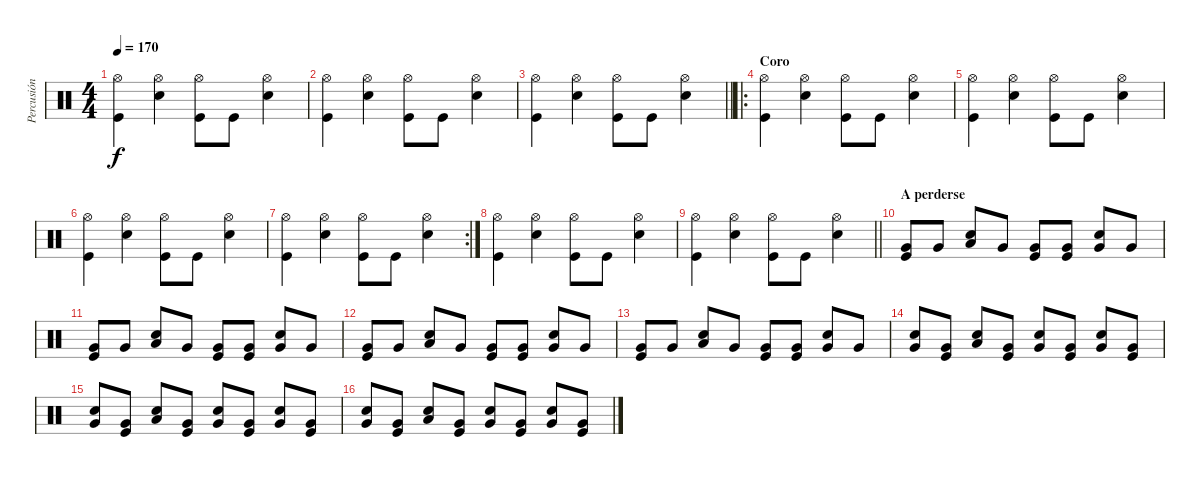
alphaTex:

\track ("Percusión" "Percusión") {instrument percussion}
\staff {score}
\articulation defaults
\ts (4 4)
\tempo 170
\clef neutral
\ks c
("Hi-Hat (open)" "Kick (hit)").4{dy f} ("Hi-Hat (open)" "Electric Snare (hit)").4 ("Hi-Hat (open)" "Kick (hit)").8 "Kick (hit)".8 ("Hi-Hat (open)" "Electric Snare (hit)").4 |
("Hi-Hat (open)" "Kick (hit)").4 ("Hi-Hat (open)" "Electric Snare (hit)").4 ("Hi-Hat (open)" "Kick (hit)").8 "Kick (hit)".8 ("Hi-Hat (open)" "Electric Snare (hit)").4 |
\barLineRight lightlight
("Hi-Hat (open)" "Kick (hit)").4 ("Hi-Hat (open)" "Electric Snare (hit)").4 ("Hi-Hat (open)" "Kick (hit)").8 "Kick (hit)".8 ("Hi-Hat (open)" "Electric Snare (hit)").4 |
\ro
\section ("" "Coro")
("Hi-Hat (open)" "Kick (hit)").4 ("Hi-Hat (open)" "Electric Snare (hit)").4 ("Hi-Hat (open)" "Kick (hit)").8 "Kick (hit)".8 ("Hi-Hat (open)" "Electric Snare (hit)").4 |
("Hi-Hat (open)" "Kick (hit)").4 ("Hi-Hat (open)" "Electric Snare (hit)").4 ("Hi-Hat (open)" "Kick (hit)").8 "Kick (hit)".8 ("Hi-Hat (open)" "Electric Snare (hit)").4 |
("Hi-Hat (open)" "Kick (hit)").4 ("Hi-Hat (open)" "Electric Snare (hit)").4 ("Hi-Hat (open)" "Kick (hit)").8 "Kick (hit)".8 ("Hi-Hat (open)" "Electric Snare (hit)").4 |
\rc 2
("Hi-Hat (open)" "Kick (hit)").4 ("Hi-Hat (open)" "Electric Snare (hit)").4 ("Hi-Hat (open)" "Kick (hit)").8 "Kick (hit)".8 ("Hi-Hat (open)" "Electric Snare (hit)").4 |
("Hi-Hat (open)" "Kick (hit)").4 ("Hi-Hat (open)" "Electric Snare (hit)").4 ("Hi-Hat (open)" "Kick (hit)").8 "Kick (hit)".8 ("Hi-Hat (open)" "Electric Snare (hit)").4 |
\barLineRight lightlight
("Hi-Hat (open)" "Kick (hit)").4 ("Hi-Hat (open)" "Electric Snare (hit)").4 ("Hi-Hat (open)" "Kick (hit)").8 "Kick (hit)".8 ("Hi-Hat (open)" "Electric Snare (hit)").4 |
\section ("" "A perderse")
("Very Low Tom (hit)" "Kick (hit)").8 "Very Low Tom (hit)".8 ("Low Tom (hit)" "Electric Snare (hit)").8 "Very Low Tom (hit)".8 ("Very Low Tom (hit)" "Kick (hit)").8 ("Very Low Tom (hit)" "Kick (hit)").8 ("Very Low Tom (hit)" "Electric Snare (hit)").8 "Very Low Tom (hit)".8 |
("Very Low Tom (hit)" "Kick (hit)").8 "Very Low Tom (hit)".8 ("Low Tom (hit)" "Electric Snare (hit)").8 "Very Low Tom (hit)".8 ("Very Low Tom (hit)" "Kick (hit)").8 ("Very Low Tom (hit)" "Kick (hit)").8 ("Very Low Tom (hit)" "Electric Snare (hit)").8 "Very Low Tom (hit)".8 |
("Very Low Tom (hit)" "Kick (hit)").8 "Very Low Tom (hit)".8 ("Low Tom (hit)" "Electric Snare (hit)").8 "Very Low Tom (hit)".8 ("Very Low Tom (hit)" "Kick (hit)").8 ("Very Low Tom (hit)" "Kick (hit)").8 ("Very Low Tom (hit)" "Electric Snare (hit)").8 "Very Low Tom (hit)".8 |
("Very Low Tom (hit)" "Kick (hit)").8 "Very Low Tom (hit)".8 ("Low Tom (hit)" "Electric Snare (hit)").8 "Very Low Tom (hit)".8 ("Very Low Tom (hit)" "Kick (hit)").8 ("Very Low Tom (hit)" "Kick (hit)").8 ("Very Low Tom (hit)" "Electric Snare (hit)").8 "Very Low Tom (hit)".8 |
("Very Low Tom (hit)" "Electric Snare (hit)").8 ("Very Low Tom (hit)" "Kick (hit)").8 ("Low Tom (hit)" "Electric Snare (hit)").8 ("Very Low Tom (hit)" "Kick (hit)").8 ("Very Low Tom (hit)" "Electric Snare (hit)").8 ("Very Low Tom (hit)" "Kick (hit)").8 ("Very Low Tom (hit)" "Electric Snare (hit)").8 ("Very Low Tom (hit)" "Kick (hit)").8 |
("Very Low Tom (hit)" "Electric Snare (hit)").8 ("Very Low Tom (hit)" "Kick (hit)").8 ("Low Tom (hit)" "Electric Snare (hit)").8 ("Very Low Tom (hit)" "Kick (hit)").8 ("Very Low Tom (hit)" "Electric Snare (hit)").8 ("Very Low Tom (hit)" "Kick (hit)").8 ("Very Low Tom (hit)" "Electric Snare (hit)").8 ("Very Low Tom (hit)" "Kick (hit)").8 |
("Very Low Tom (hit)" "Electric Snare (hit)").8 ("Very Low Tom (hit)" "Kick (hit)").8 ("Low Tom (hit)" "Electric Snare (hit)").8 ("Very Low Tom (hit)" "Kick (hit)").8 ("Very Low Tom (hit)" "Electric Snare (hit)").8 ("Very Low Tom (hit)" "Kick (hit)").8 ("Very Low Tom (hit)" "Electric Snare (hit)").8 ("Very Low Tom (hit)" "Kick (hit)").8
